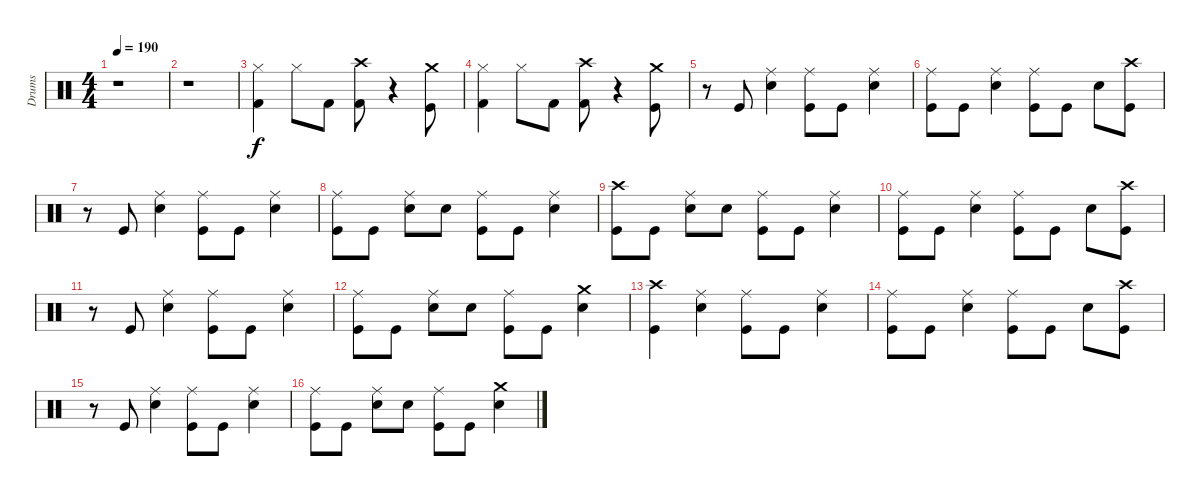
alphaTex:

\track ("Drums" "Drums") {instrument percussion}
\staff {score}
\articulation defaults
\ts (4 4)
\tempo 190
\clef neutral
\ks c
r.1{dy f} |
r.1 |
("Kick (hit) 2" "Hi-Hat (closed)").4 "Hi-Hat (closed)".8 "Kick (hit) 2".8 ("Crash high (hit)" "Kick (hit) 2").8 r.4 ("Kick (hit)" "Crash medium (hit)").8 |
("Kick (hit) 2" "Hi-Hat (closed)").4 "Hi-Hat (closed)".8 "Kick (hit) 2".8 ("Crash high (hit)" "Kick (hit) 2").8 r.4 ("Kick (hit)" "Crash medium (hit)").8 |
r.8 "Kick (hit)".8 ("Electric Snare (hit)" "Ride (middle)").4 ("Kick (hit)" "Ride (middle)").8 "Kick (hit)".8 ("Electric Snare (hit)" "Ride (middle)").4 |
("Kick (hit)" "Ride (middle)").8 "Kick (hit)".8 ("Electric Snare (hit)" "Ride (middle)").4 ("Kick (hit)" "Ride (middle)").8 "Kick (hit)".8 "Electric Snare (hit)".8 ("Kick (hit)" "Crash high (hit)").8 |
r.8 "Kick (hit)".8 ("Electric Snare (hit)" "Ride (middle)").4 ("Kick (hit)" "Ride (middle)").8 "Kick (hit)".8 ("Electric Snare (hit)" "Ride (middle)").4 |
("Kick (hit)" "Ride (middle)").8 "Kick (hit)".8 ("Electric Snare (hit)" "Ride (middle)").8 "Electric Snare (hit)".8 ("Kick (hit)" "Ride (middle)").8 "Kick (hit)".8 ("Electric Snare (hit)" "Ride (middle)").4 |
("Kick (hit)" "Crash high (hit)").8 "Kick (hit)".8 ("Electric Snare (hit)" "Ride (middle)").8 "Electric Snare (hit)".8 ("Kick (hit)" "Ride (middle)").8 "Kick (hit)".8 ("Electric Snare (hit)" "Ride (middle)").4 |
("Kick (hit)" "Ride (middle)").8 "Kick (hit)".8 ("Electric Snare (hit)" "Ride (middle)").4 ("Kick (hit)" "Ride (middle)").8 "Kick (hit)".8 "Electric Snare (hit)".8 ("Kick (hit)" "Crash high (hit)").8 |
r.8 "Kick (hit)".8 ("Electric Snare (hit)" "Ride (middle)").4 ("Kick (hit)" "Ride (middle)").8 "Kick (hit)".8 ("Electric Snare (hit)" "Ride (middle)").4 |
("Kick (hit)" "Ride (middle)").8 "Kick (hit)".8 ("Electric Snare (hit)" "Ride (middle)").8 "Electric Snare (hit)".8 ("Kick (hit)" "Ride (middle)").8 "Kick (hit)".8 ("Electric Snare (hit)" "Crash medium (hit)").4 |
("Kick (hit)" "Crash high (hit)").4 ("Electric Snare (hit)" "Ride (middle)").4 ("Kick (hit)" "Ride (middle)").8 "Kick (hit)".8 ("Electric Snare (hit)" "Ride (middle)").4 |
("Kick (hit)" "Ride (middle)").8 "Kick (hit)".8 ("Electric Snare (hit)" "Ride (middle)").4 ("Kick (hit)" "Ride (middle)").8 "Kick (hit)".8 "Electric Snare (hit)".8 ("Crash high (hit)" "Kick (hit)").8 |
r.8 "Kick (hit)".8 ("Electric Snare (hit)" "Ride (middle)").4 ("Kick (hit)" "Ride (middle)").8 "Kick (hit)".8 ("Electric Snare (hit)" "Ride (middle)").4 |
("Kick (hit)" "Ride (middle)").8 "Kick (hit)".8 ("Electric Snare (hit)" "Ride (middle)").8 "Electric Snare (hit)".8 ("Kick (hit)" "Ride (middle)").8 "Kick (hit)".8 ("Electric Snare (hit)" "Crash medium (hit)").4
